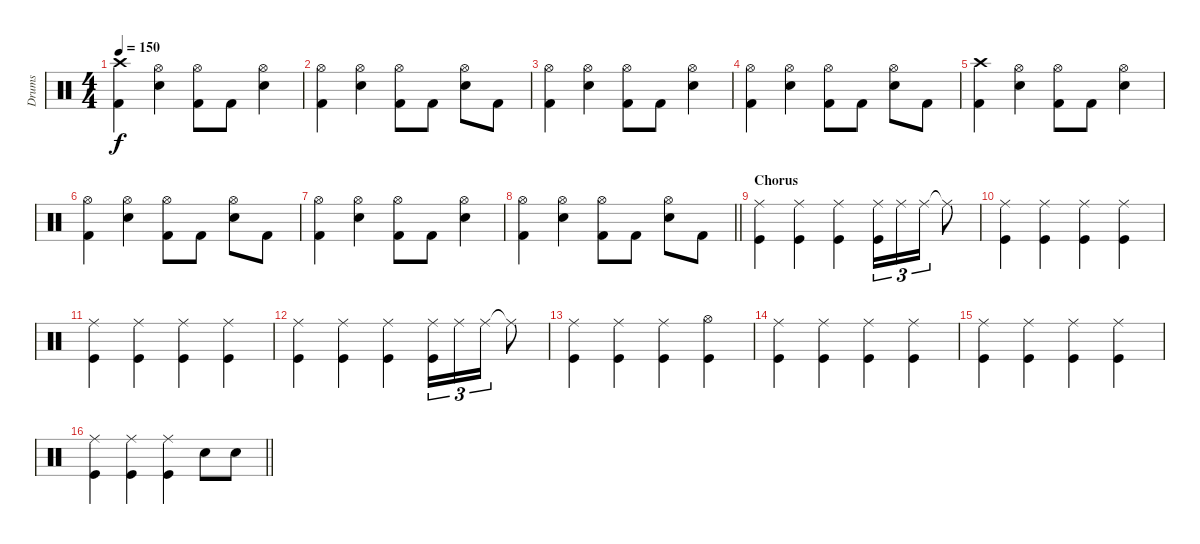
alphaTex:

\track ("Drums" "Drums") {instrument percussion}
\staff {score}
\articulation defaults
\ts (4 4)
\tempo 150
\clef neutral
\ks c
("Crash high (hit)" "Kick (hit) 2").4{dy f} ("Hi-Hat (open)" "Electric Snare (hit)").4 ("Hi-Hat (open)" "Kick (hit) 2").8 "Kick (hit) 2".8 ("Hi-Hat (open)" "Electric Snare (hit)").4 |
("Hi-Hat (open)" "Kick (hit) 2").4 ("Hi-Hat (open)" "Electric Snare (hit)").4 ("Hi-Hat (open)" "Kick (hit) 2").8 "Kick (hit) 2".8 ("Hi-Hat (open)" "Electric Snare (hit)").8 "Kick (hit) 2".8 |
("Hi-Hat (open)" "Kick (hit) 2").4 ("Hi-Hat (open)" "Electric Snare (hit)").4 ("Hi-Hat (open)" "Kick (hit) 2").8 "Kick (hit) 2".8 ("Hi-Hat (open)" "Electric Snare (hit)").4 |
("Hi-Hat (open)" "Kick (hit) 2").4 ("Hi-Hat (open)" "Electric Snare (hit)").4 ("Hi-Hat (open)" "Kick (hit) 2").8 "Kick (hit) 2".8 ("Hi-Hat (open)" "Electric Snare (hit)").8 "Kick (hit) 2".8 |
("Crash high (hit)" "Kick (hit) 2").4 ("Hi-Hat (open)" "Electric Snare (hit)").4 ("Hi-Hat (open)" "Kick (hit) 2").8 "Kick (hit) 2".8 ("Hi-Hat (open)" "Electric Snare (hit)").4 |
("Hi-Hat (open)" "Kick (hit) 2").4 ("Hi-Hat (open)" "Electric Snare (hit)").4 ("Hi-Hat (open)" "Kick (hit) 2").8 "Kick (hit) 2".8 ("Hi-Hat (open)" "Electric Snare (hit)").8 "Kick (hit) 2".8 |
("Hi-Hat (open)" "Kick (hit) 2").4 ("Hi-Hat (open)" "Electric Snare (hit)").4 ("Hi-Hat (open)" "Kick (hit) 2").8 "Kick (hit) 2".8 ("Hi-Hat (open)" "Electric Snare (hit)").4 |
\barLineRight lightlight
("Hi-Hat (open)" "Kick (hit) 2").4 ("Hi-Hat (open)" "Electric Snare (hit)").4 ("Hi-Hat (open)" "Kick (hit) 2").8 "Kick (hit) 2".8 ("Hi-Hat (open)" "Electric Snare (hit)").8 "Kick (hit) 2".8 |
\section ("" "Chorus")
("Ride (middle)" "Kick (hit)").4 ("Ride (middle)" "Kick (hit)").4 ("Ride (middle)" "Kick (hit)").4 ("Ride (middle)" "Kick (hit)").16{tu (3 2)} "Ride (middle)".16{tu (3 2)} "Ride (middle)".16{tu (3 2)} "Ride (middle)"{t}.8 |
("Ride (middle)" "Kick (hit)").4 ("Ride (middle)" "Kick (hit)").4 ("Ride (middle)" "Kick (hit)").4 ("Ride (middle)" "Kick (hit)").4 |
("Ride (middle)" "Kick (hit)").4 ("Ride (middle)" "Kick (hit)").4 ("Ride (middle)" "Kick (hit)").4 ("Ride (middle)" "Kick (hit)").4 |
("Ride (middle)" "Kick (hit)").4 ("Ride (middle)" "Kick (hit)").4 ("Ride (middle)" "Kick (hit)").4 ("Ride (middle)" "Kick (hit)").16{tu (3 2)} "Ride (middle)".16{tu (3 2)} "Ride (middle)".16{tu (3 2)} "Ride (middle)"{t}.8 |
("Ride (middle)" "Kick (hit)").4 ("Ride (middle)" "Kick (hit)").4 ("Ride (middle)" "Kick (hit)").4 ("Hi-Hat (open)" "Kick (hit)").4 |
("Ride (middle)" "Kick (hit)").4 ("Ride (middle)" "Kick (hit)").4 ("Ride (middle)" "Kick (hit)").4 ("Ride (middle)" "Kick (hit)").4 |
("Ride (middle)" "Kick (hit)").4 ("Ride (middle)" "Kick (hit)").4 ("Ride (middle)" "Kick (hit)").4 ("Ride (middle)" "Kick (hit)").4 |
\barLineRight lightlight
("Ride (middle)" "Kick (hit)").4 ("Ride (middle)" "Kick (hit)").4 ("Ride (middle)" "Kick (hit)").4 "Electric Snare (hit)".8 "Electric Snare (hit)".8
